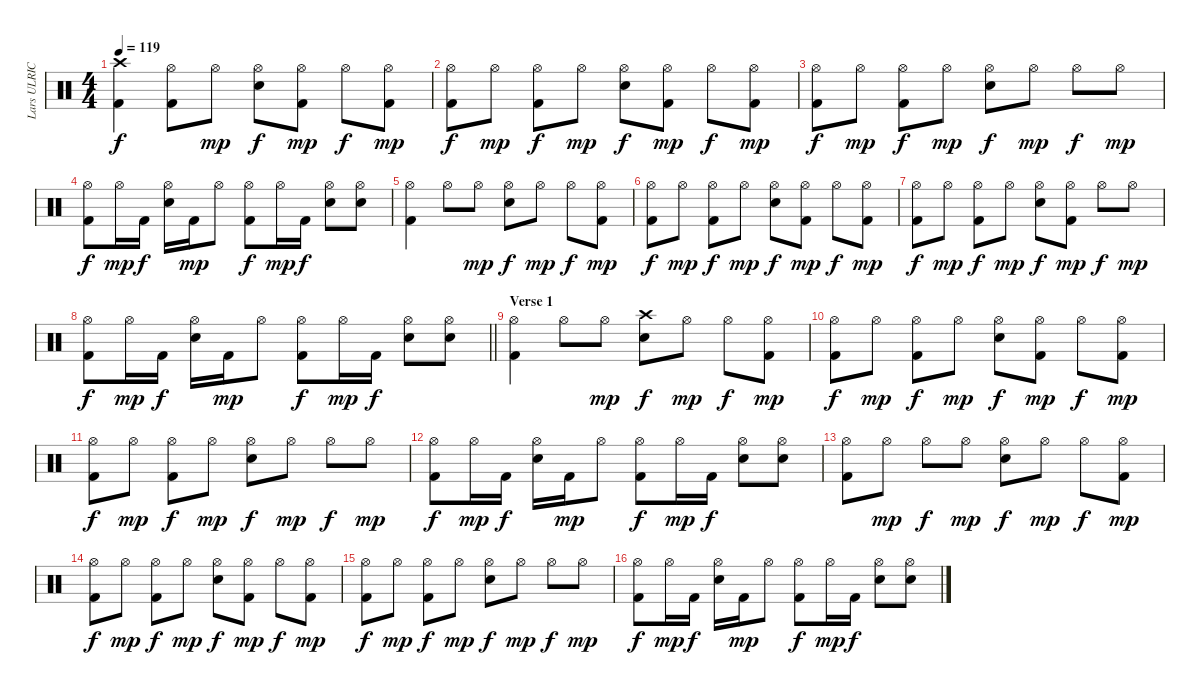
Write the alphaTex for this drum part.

\track ("Lars ULRICH" "Lars ULRIC") {instrument percussion}
\staff {score}
\articulation defaults
\ts (4 4)
\tempo 119
\clef neutral
\ks c
("Crash high (hit)" "Kick (hit) 2").4{dy f} ("Hi-Hat (open)" "Kick (hit) 2").8 "Hi-Hat (open)".8{dy mp} ("Hi-Hat (open)" "Snare (hit) 2").8{dy f} ("Hi-Hat (open)" "Kick (hit) 2").8{dy mp} "Hi-Hat (open)".8{dy f} ("Hi-Hat (open)" "Kick (hit) 2").8{dy mp} |
("Hi-Hat (open)" "Kick (hit) 2").8{dy f} "Hi-Hat (open)".8{dy mp} ("Hi-Hat (open)" "Kick (hit) 2").8{dy f} "Hi-Hat (open)".8{dy mp} ("Hi-Hat (open)" "Snare (hit) 2").8{dy f} ("Hi-Hat (open)" "Kick (hit) 2").8{dy mp} "Hi-Hat (open)".8{dy f} ("Hi-Hat (open)" "Kick (hit) 2").8{dy mp} |
("Hi-Hat (open)" "Kick (hit) 2").8{dy f} "Hi-Hat (open)".8{dy mp} ("Hi-Hat (open)" "Kick (hit) 2").8{dy f} "Hi-Hat (open)".8{dy mp} ("Hi-Hat (open)" "Snare (hit) 2").8{dy f} "Hi-Hat (open)".8{dy mp} "Hi-Hat (open)".8{dy f} "Hi-Hat (open)".8{dy mp} |
("Hi-Hat (open)" "Kick (hit) 2").8{dy f} "Hi-Hat (open)".16{dy mp} "Kick (hit) 2".16{dy f} ("Hi-Hat (open)" "Snare (hit) 2").16 "Kick (hit) 2".16{dy mp} "Hi-Hat (open)".8 ("Hi-Hat (open)" "Kick (hit) 2").8{dy f} "Hi-Hat (open)".16{dy mp} "Kick (hit) 2".16{dy f} ("Hi-Hat (open)" "Snare (hit) 2").8 ("Hi-Hat (open)" "Snare (hit) 2").8 |
("Hi-Hat (open)" "Kick (hit) 2").4 "Hi-Hat (open)".8 "Hi-Hat (open)".8{dy mp} ("Hi-Hat (open)" "Snare (hit) 2").8{dy f} "Hi-Hat (open)".8{dy mp} "Hi-Hat (open)".8{dy f} ("Hi-Hat (open)" "Kick (hit) 2").8{dy mp} |
("Hi-Hat (open)" "Kick (hit) 2").8{dy f} "Hi-Hat (open)".8{dy mp} ("Hi-Hat (open)" "Kick (hit) 2").8{dy f} "Hi-Hat (open)".8{dy mp} ("Hi-Hat (open)" "Snare (hit) 2").8{dy f} ("Hi-Hat (open)" "Kick (hit) 2").8{dy mp} "Hi-Hat (open)".8{dy f} ("Hi-Hat (open)" "Kick (hit) 2").8{dy mp} |
("Hi-Hat (open)" "Kick (hit) 2").8{dy f} "Hi-Hat (open)".8{dy mp} ("Hi-Hat (open)" "Kick (hit) 2").8{dy f} "Hi-Hat (open)".8{dy mp} ("Hi-Hat (open)" "Snare (hit) 2").8{dy f} ("Hi-Hat (open)" "Kick (hit) 2").8{dy mp} "Hi-Hat (open)".8{dy f} "Hi-Hat (open)".8{dy mp} |
\barLineRight lightlight
("Hi-Hat (open)" "Kick (hit) 2").8{dy f} "Hi-Hat (open)".16{dy mp} "Kick (hit) 2".16{dy f} ("Hi-Hat (open)" "Snare (hit) 2").16 "Kick (hit) 2".16{dy mp} "Hi-Hat (open)".8 ("Hi-Hat (open)" "Kick (hit) 2").8{dy f} "Hi-Hat (open)".16{dy mp} "Kick (hit) 2".16{dy f} ("Hi-Hat (open)" "Snare (hit) 2").8 ("Hi-Hat (open)" "Snare (hit) 2").8 |
\section ("" "Verse 1")
("Hi-Hat (open)" "Kick (hit) 2").4 "Hi-Hat (open)".8 "Hi-Hat (open)".8{dy mp} ("Crash high (hit)" "Snare (hit) 2").8{dy f} "Hi-Hat (open)".8{dy mp} "Hi-Hat (open)".8{dy f} ("Hi-Hat (open)" "Kick (hit) 2").8{dy mp} |
("Hi-Hat (open)" "Kick (hit) 2").8{dy f} "Hi-Hat (open)".8{dy mp} ("Hi-Hat (open)" "Kick (hit) 2").8{dy f} "Hi-Hat (open)".8{dy mp} ("Hi-Hat (open)" "Snare (hit) 2").8{dy f} ("Hi-Hat (open)" "Kick (hit) 2").8{dy mp} "Hi-Hat (open)".8{dy f} ("Hi-Hat (open)" "Kick (hit) 2").8{dy mp} |
("Hi-Hat (open)" "Kick (hit) 2").8{dy f} "Hi-Hat (open)".8{dy mp} ("Hi-Hat (open)" "Kick (hit) 2").8{dy f} "Hi-Hat (open)".8{dy mp} ("Hi-Hat (open)" "Snare (hit) 2").8{dy f} "Hi-Hat (open)".8{dy mp} "Hi-Hat (open)".8{dy f} "Hi-Hat (open)".8{dy mp} |
("Hi-Hat (open)" "Kick (hit) 2").8{dy f} "Hi-Hat (open)".16{dy mp} "Kick (hit) 2".16{dy f} ("Hi-Hat (open)" "Snare (hit) 2").16 "Kick (hit) 2".16{dy mp} "Hi-Hat (open)".8 ("Hi-Hat (open)" "Kick (hit) 2").8{dy f} "Hi-Hat (open)".16{dy mp} "Kick (hit) 2".16{dy f} ("Hi-Hat (open)" "Snare (hit) 2").8 ("Hi-Hat (open)" "Snare (hit) 2").8 |
("Hi-Hat (open)" "Kick (hit) 2").8 "Hi-Hat (open)".8{dy mp} "Hi-Hat (open)".8{dy f} "Hi-Hat (open)".8{dy mp} ("Hi-Hat (open)" "Snare (hit) 2").8{dy f} "Hi-Hat (open)".8{dy mp} "Hi-Hat (open)".8{dy f} ("Hi-Hat (open)" "Kick (hit) 2").8{dy mp} |
("Hi-Hat (open)" "Kick (hit) 2").8{dy f} "Hi-Hat (open)".8{dy mp} ("Hi-Hat (open)" "Kick (hit) 2").8{dy f} "Hi-Hat (open)".8{dy mp} ("Hi-Hat (open)" "Snare (hit) 2").8{dy f} ("Hi-Hat (open)" "Kick (hit) 2").8{dy mp} "Hi-Hat (open)".8{dy f} ("Hi-Hat (open)" "Kick (hit) 2").8{dy mp} |
("Hi-Hat (open)" "Kick (hit) 2").8{dy f} "Hi-Hat (open)".8{dy mp} ("Hi-Hat (open)" "Kick (hit) 2").8{dy f} "Hi-Hat (open)".8{dy mp} ("Hi-Hat (open)" "Snare (hit) 2").8{dy f} "Hi-Hat (open)".8{dy mp} "Hi-Hat (open)".8{dy f} "Hi-Hat (open)".8{dy mp} |
("Hi-Hat (open)" "Kick (hit) 2").8{dy f} "Hi-Hat (open)".16{dy mp} "Kick (hit) 2".16{dy f} ("Hi-Hat (open)" "Snare (hit) 2").16 "Kick (hit) 2".16{dy mp} "Hi-Hat (open)".8 ("Hi-Hat (open)" "Kick (hit) 2").8{dy f} "Hi-Hat (open)".16{dy mp} "Kick (hit) 2".16{dy f} ("Hi-Hat (open)" "Snare (hit) 2").8 ("Hi-Hat (open)" "Snare (hit) 2").8
